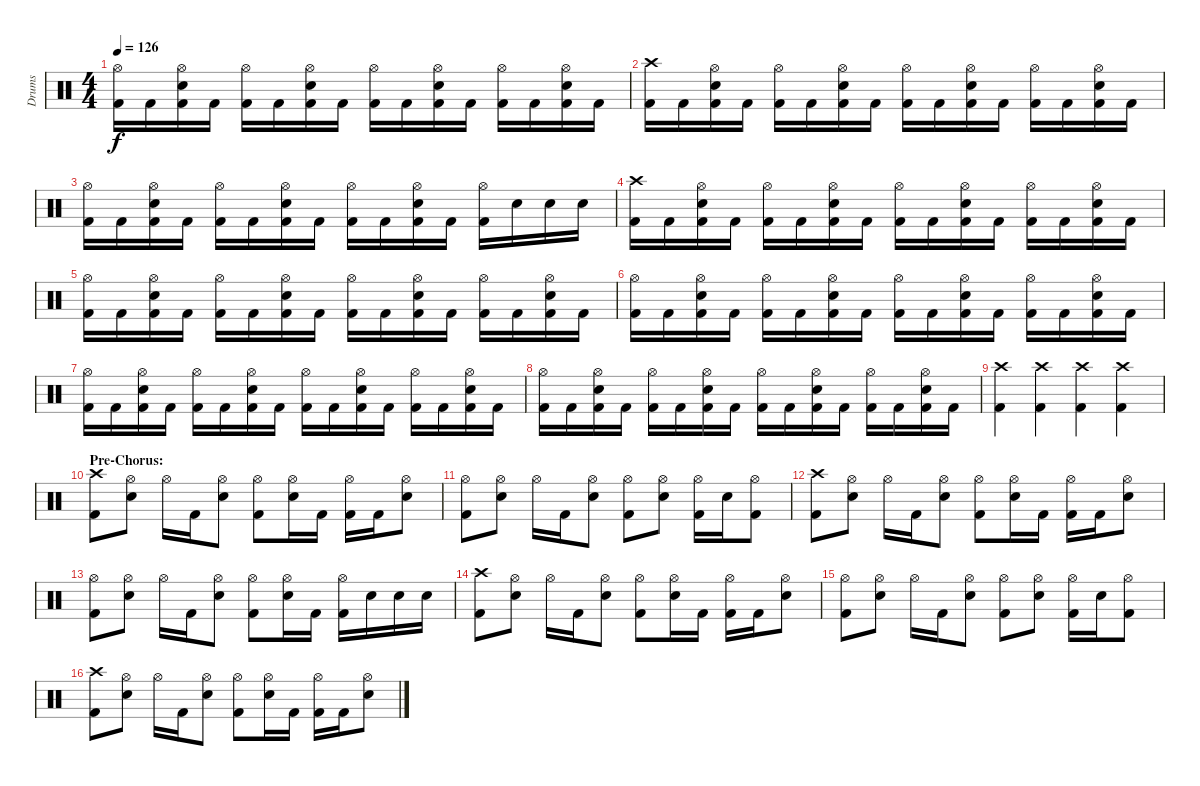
\track ("Drums" "Drums") {instrument percussion}
\staff {score}
\articulation defaults
\ts (4 4)
\tempo 126
\clef neutral
\ks c
("Hi-Hat (open)" "Kick (hit) 2").16{dy f} "Kick (hit) 2".16 ("Hi-Hat (open)" "Snare (hit) 2" "Kick (hit) 2").16 "Kick (hit) 2".16 ("Hi-Hat (open)" "Kick (hit) 2").16 "Kick (hit) 2".16 ("Hi-Hat (open)" "Snare (hit) 2" "Kick (hit) 2").16 "Kick (hit) 2".16 ("Hi-Hat (open)" "Kick (hit) 2").16 "Kick (hit) 2".16 ("Hi-Hat (open)" "Snare (hit) 2" "Kick (hit) 2").16 "Kick (hit) 2".16 ("Hi-Hat (open)" "Kick (hit) 2").16 "Kick (hit) 2".16 ("Hi-Hat (open)" "Snare (hit) 2" "Kick (hit) 2").16 "Kick (hit) 2".16 |
("Crash high (hit)" "Kick (hit) 2").16 "Kick (hit) 2".16 ("Hi-Hat (open)" "Snare (hit) 2" "Kick (hit) 2").16 "Kick (hit) 2".16 ("Hi-Hat (open)" "Kick (hit) 2").16 "Kick (hit) 2".16 ("Hi-Hat (open)" "Snare (hit) 2" "Kick (hit) 2").16 "Kick (hit) 2".16 ("Hi-Hat (open)" "Kick (hit) 2").16 "Kick (hit) 2".16 ("Hi-Hat (open)" "Snare (hit) 2" "Kick (hit) 2").16 "Kick (hit) 2".16 ("Hi-Hat (open)" "Kick (hit) 2").16 "Kick (hit) 2".16 ("Hi-Hat (open)" "Snare (hit) 2" "Kick (hit) 2").16 "Kick (hit) 2".16 |
("Hi-Hat (open)" "Kick (hit) 2").16 "Kick (hit) 2".16 ("Hi-Hat (open)" "Snare (hit) 2" "Kick (hit) 2").16 "Kick (hit) 2".16 ("Hi-Hat (open)" "Kick (hit) 2").16 "Kick (hit) 2".16 ("Hi-Hat (open)" "Snare (hit) 2" "Kick (hit) 2").16 "Kick (hit) 2".16 ("Hi-Hat (open)" "Kick (hit) 2").16 "Kick (hit) 2".16 ("Hi-Hat (open)" "Snare (hit) 2" "Kick (hit) 2").16 "Kick (hit) 2".16 ("Hi-Hat (open)" "Kick (hit) 2").16 "Snare (hit) 2".16 "Snare (hit) 2".16 "Snare (hit) 2".16 |
("Crash high (hit)" "Kick (hit) 2").16 "Kick (hit) 2".16 ("Hi-Hat (open)" "Snare (hit) 2" "Kick (hit) 2").16 "Kick (hit) 2".16 ("Hi-Hat (open)" "Kick (hit) 2").16 "Kick (hit) 2".16 ("Hi-Hat (open)" "Snare (hit) 2" "Kick (hit) 2").16 "Kick (hit) 2".16 ("Hi-Hat (open)" "Kick (hit) 2").16 "Kick (hit) 2".16 ("Hi-Hat (open)" "Snare (hit) 2" "Kick (hit) 2").16 "Kick (hit) 2".16 ("Hi-Hat (open)" "Kick (hit) 2").16 "Kick (hit) 2".16 ("Hi-Hat (open)" "Snare (hit) 2" "Kick (hit) 2").16 "Kick (hit) 2".16 |
("Hi-Hat (open)" "Kick (hit) 2").16 "Kick (hit) 2".16 ("Hi-Hat (open)" "Snare (hit) 2" "Kick (hit) 2").16 "Kick (hit) 2".16 ("Hi-Hat (open)" "Kick (hit) 2").16 "Kick (hit) 2".16 ("Hi-Hat (open)" "Snare (hit) 2" "Kick (hit) 2").16 "Kick (hit) 2".16 ("Hi-Hat (open)" "Kick (hit) 2").16 "Kick (hit) 2".16 ("Hi-Hat (open)" "Snare (hit) 2" "Kick (hit) 2").16 "Kick (hit) 2".16 ("Hi-Hat (open)" "Kick (hit) 2").16 "Kick (hit) 2".16 ("Hi-Hat (open)" "Snare (hit) 2" "Kick (hit) 2").16 "Kick (hit) 2".16 |
("Hi-Hat (open)" "Kick (hit) 2").16 "Kick (hit) 2".16 ("Hi-Hat (open)" "Snare (hit) 2" "Kick (hit) 2").16 "Kick (hit) 2".16 ("Hi-Hat (open)" "Kick (hit) 2").16 "Kick (hit) 2".16 ("Hi-Hat (open)" "Snare (hit) 2" "Kick (hit) 2").16 "Kick (hit) 2".16 ("Hi-Hat (open)" "Kick (hit) 2").16 "Kick (hit) 2".16 ("Hi-Hat (open)" "Snare (hit) 2" "Kick (hit) 2").16 "Kick (hit) 2".16 ("Hi-Hat (open)" "Kick (hit) 2").16 "Kick (hit) 2".16 ("Hi-Hat (open)" "Snare (hit) 2" "Kick (hit) 2").16 "Kick (hit) 2".16 |
("Hi-Hat (open)" "Kick (hit) 2").16 "Kick (hit) 2".16 ("Hi-Hat (open)" "Snare (hit) 2" "Kick (hit) 2").16 "Kick (hit) 2".16 ("Hi-Hat (open)" "Kick (hit) 2").16 "Kick (hit) 2".16 ("Hi-Hat (open)" "Snare (hit) 2" "Kick (hit) 2").16 "Kick (hit) 2".16 ("Hi-Hat (open)" "Kick (hit) 2").16 "Kick (hit) 2".16 ("Hi-Hat (open)" "Snare (hit) 2" "Kick (hit) 2").16 "Kick (hit) 2".16 ("Hi-Hat (open)" "Kick (hit) 2").16 "Kick (hit) 2".16 ("Hi-Hat (open)" "Snare (hit) 2" "Kick (hit) 2").16 "Kick (hit) 2".16 |
("Hi-Hat (open)" "Kick (hit) 2").16 "Kick (hit) 2".16 ("Hi-Hat (open)" "Snare (hit) 2" "Kick (hit) 2").16 "Kick (hit) 2".16 ("Hi-Hat (open)" "Kick (hit) 2").16 "Kick (hit) 2".16 ("Hi-Hat (open)" "Snare (hit) 2" "Kick (hit) 2").16 "Kick (hit) 2".16 ("Hi-Hat (open)" "Kick (hit) 2").16 "Kick (hit) 2".16 ("Hi-Hat (open)" "Snare (hit) 2" "Kick (hit) 2").16 "Kick (hit) 2".16 ("Hi-Hat (open)" "Kick (hit) 2").16 "Kick (hit) 2".16 ("Hi-Hat (open)" "Snare (hit) 2" "Kick (hit) 2").16 "Kick (hit) 2".16 |
("Crash high (hit)" "Kick (hit) 2").4 ("Crash high (hit)" "Kick (hit) 2").4 ("Crash high (hit)" "Kick (hit) 2").4 ("Crash high (hit)" "Kick (hit) 2").4 |
\section ("" "Pre-Chorus:")
("Crash high (hit)" "Kick (hit) 2").8 ("Hi-Hat (open)" "Snare (hit) 2").8 "Hi-Hat (open)".16 "Kick (hit) 2".16 ("Hi-Hat (open)" "Snare (hit) 2").8 ("Hi-Hat (open)" "Kick (hit) 2").8 ("Hi-Hat (open)" "Snare (hit) 2").16 "Kick (hit) 2".16 ("Hi-Hat (open)" "Kick (hit) 2").16 "Kick (hit) 2".16 ("Hi-Hat (open)" "Snare (hit) 2").8 |
("Hi-Hat (open)" "Kick (hit) 2").8 ("Hi-Hat (open)" "Snare (hit) 2").8 "Hi-Hat (open)".16 "Kick (hit) 2".16 ("Hi-Hat (open)" "Snare (hit) 2").8 ("Hi-Hat (open)" "Kick (hit) 2").8 ("Hi-Hat (open)" "Snare (hit) 2").8 ("Hi-Hat (open)" "Kick (hit) 2").16 "Snare (hit) 2".16 ("Hi-Hat (open)" "Kick (hit) 2").8 |
("Crash high (hit)" "Kick (hit) 2").8 ("Hi-Hat (open)" "Snare (hit) 2").8 "Hi-Hat (open)".16 "Kick (hit) 2".16 ("Hi-Hat (open)" "Snare (hit) 2").8 ("Hi-Hat (open)" "Kick (hit) 2").8 ("Hi-Hat (open)" "Snare (hit) 2").16 "Kick (hit) 2".16 ("Hi-Hat (open)" "Kick (hit) 2").16 "Kick (hit) 2".16 ("Hi-Hat (open)" "Snare (hit) 2").8 |
("Hi-Hat (open)" "Kick (hit) 2").8 ("Hi-Hat (open)" "Snare (hit) 2").8 "Hi-Hat (open)".16 "Kick (hit) 2".16 ("Hi-Hat (open)" "Snare (hit) 2").8 ("Hi-Hat (open)" "Kick (hit) 2").8 ("Hi-Hat (open)" "Snare (hit) 2").16 "Kick (hit) 2".16 ("Hi-Hat (open)" "Kick (hit) 2").16 "Snare (hit) 2".16 "Snare (hit) 2".16 "Snare (hit) 2".16 |
("Crash high (hit)" "Kick (hit) 2").8 ("Hi-Hat (open)" "Snare (hit) 2").8 "Hi-Hat (open)".16 "Kick (hit) 2".16 ("Hi-Hat (open)" "Snare (hit) 2").8 ("Hi-Hat (open)" "Kick (hit) 2").8 ("Hi-Hat (open)" "Snare (hit) 2").16 "Kick (hit) 2".16 ("Hi-Hat (open)" "Kick (hit) 2").16 "Kick (hit) 2".16 ("Hi-Hat (open)" "Snare (hit) 2").8 |
("Hi-Hat (open)" "Kick (hit) 2").8 ("Hi-Hat (open)" "Snare (hit) 2").8 "Hi-Hat (open)".16 "Kick (hit) 2".16 ("Hi-Hat (open)" "Snare (hit) 2").8 ("Hi-Hat (open)" "Kick (hit) 2").8 ("Hi-Hat (open)" "Snare (hit) 2").8 ("Hi-Hat (open)" "Kick (hit) 2").16 "Snare (hit) 2".16 ("Hi-Hat (open)" "Kick (hit) 2").8 |
("Crash high (hit)" "Kick (hit) 2").8 ("Hi-Hat (open)" "Snare (hit) 2").8 "Hi-Hat (open)".16 "Kick (hit) 2".16 ("Hi-Hat (open)" "Snare (hit) 2").8 ("Hi-Hat (open)" "Kick (hit) 2").8 ("Hi-Hat (open)" "Snare (hit) 2").16 "Kick (hit) 2".16 ("Hi-Hat (open)" "Kick (hit) 2").16 "Kick (hit) 2".16 ("Hi-Hat (open)" "Snare (hit) 2").8
